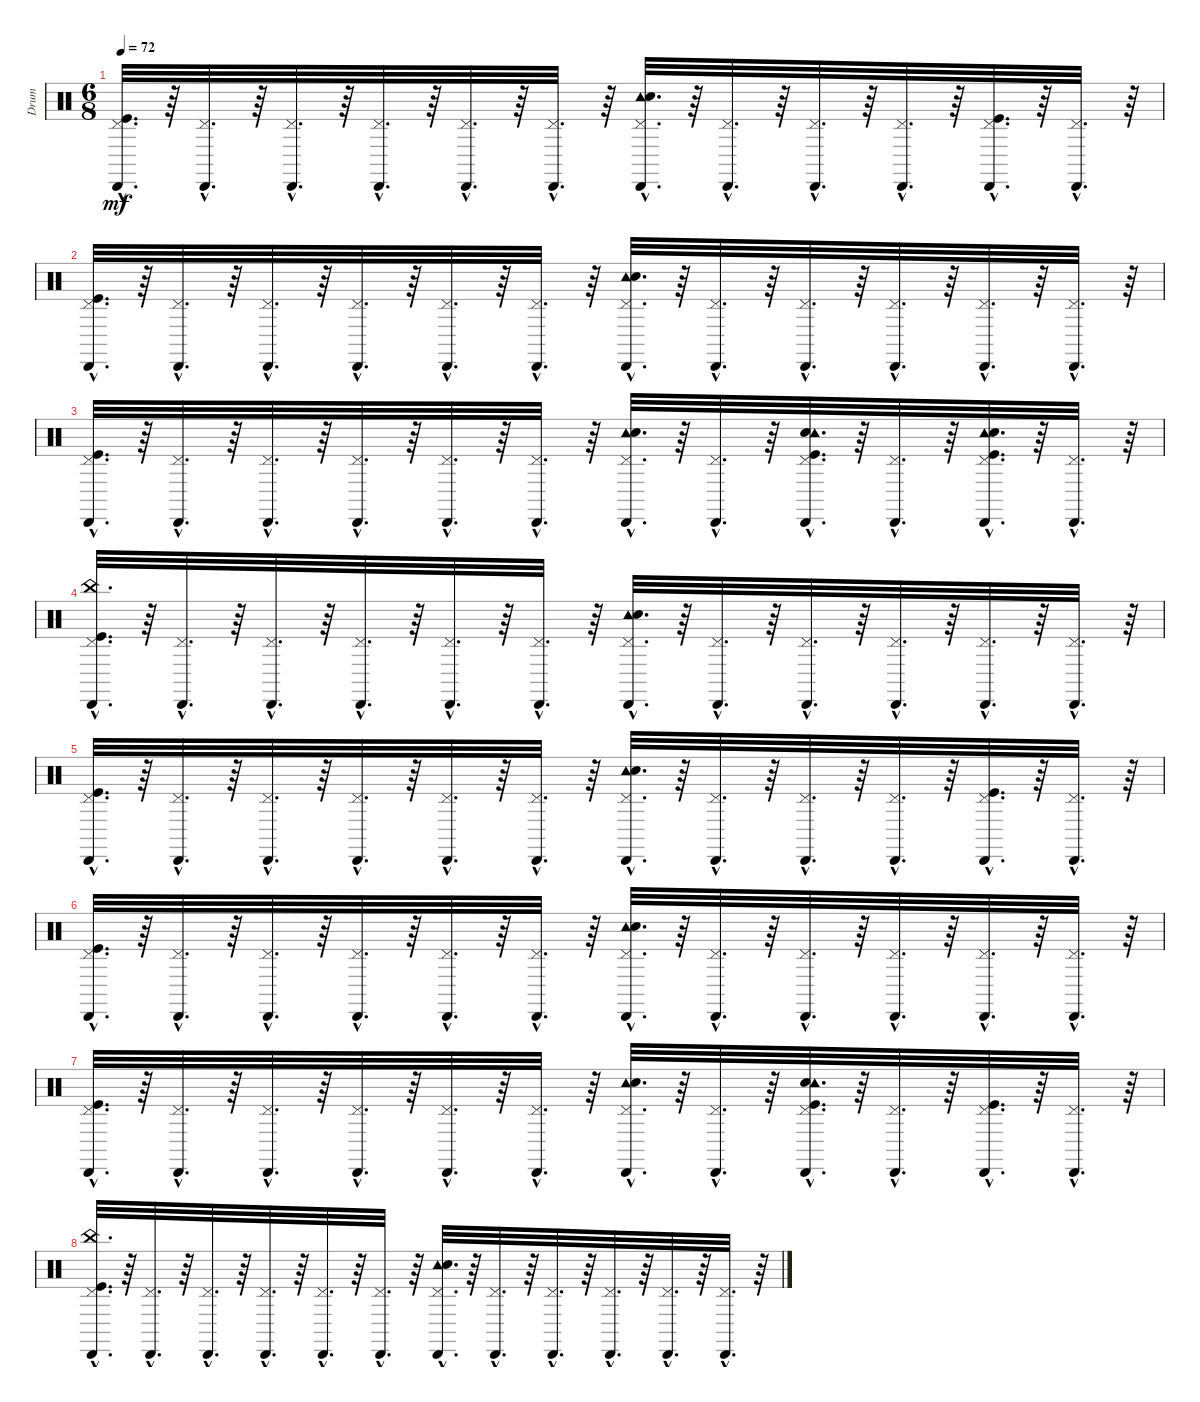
\track ("Drum" "Drum") {instrument percussion}
\staff {score}
\articulation defaults
\ts (6 8)
\tempo 72
\clef neutral
\ks c
("Cabasa (hit)"{hac} "Pedal Hi-Hat (hit)"{hac} "Kick (hit)"{hac}).32{d dy mf} r.64 ("Cabasa (hit)"{hac} "Pedal Hi-Hat (hit)"{hac}).32{d} r.64 ("Cabasa (hit)"{hac} "Pedal Hi-Hat (hit)"{hac}).32{d} r.64 ("Cabasa (hit)"{hac} "Pedal Hi-Hat (hit)"{hac}).32{d} r.64 ("Cabasa (hit)"{hac} "Pedal Hi-Hat (hit)"{hac}).32{d} r.64 ("Cabasa (hit)"{hac} "Pedal Hi-Hat (hit)"{hac}).32{d} r.64 ("Cabasa (hit)"{hac} "Pedal Hi-Hat (hit)"{hac} "Tambourine (hit)"{hac} "Electric Snare (hit)"{hac}).32{d} r.64 ("Cabasa (hit)"{hac} "Pedal Hi-Hat (hit)"{hac}).32{d} r.64 ("Cabasa (hit)"{hac} "Pedal Hi-Hat (hit)"{hac}).32{d} r.64 ("Cabasa (hit)"{hac} "Pedal Hi-Hat (hit)"{hac}).32{d} r.64 ("Kick (hit)"{hac} "Cabasa (hit)"{hac} "Pedal Hi-Hat (hit)"{hac}).32{d} r.64 ("Cabasa (hit)"{hac} "Pedal Hi-Hat (hit)"{hac}).32{d} r.64 |
("Cabasa (hit)"{hac} "Pedal Hi-Hat (hit)"{hac} "Kick (hit)"{hac}).32{d} r.64 ("Cabasa (hit)"{hac} "Pedal Hi-Hat (hit)"{hac}).32{d} r.64 ("Cabasa (hit)"{hac} "Pedal Hi-Hat (hit)"{hac}).32{d} r.64 ("Cabasa (hit)"{hac} "Pedal Hi-Hat (hit)"{hac}).32{d} r.64 ("Cabasa (hit)"{hac} "Pedal Hi-Hat (hit)"{hac}).32{d} r.64 ("Cabasa (hit)"{hac} "Pedal Hi-Hat (hit)"{hac}).32{d} r.64 ("Cabasa (hit)"{hac} "Pedal Hi-Hat (hit)"{hac} "Tambourine (hit)"{hac} "Electric Snare (hit)"{hac}).32{d} r.64 ("Cabasa (hit)"{hac} "Pedal Hi-Hat (hit)"{hac}).32{d} r.64 ("Cabasa (hit)"{hac} "Pedal Hi-Hat (hit)"{hac}).32{d} r.64 ("Cabasa (hit)"{hac} "Pedal Hi-Hat (hit)"{hac}).32{d} r.64 ("Cabasa (hit)"{hac} "Pedal Hi-Hat (hit)"{hac}).32{d} r.64 ("Cabasa (hit)"{hac} "Pedal Hi-Hat (hit)"{hac}).32{d} r.64 |
("Cabasa (hit)"{hac} "Pedal Hi-Hat (hit)"{hac} "Kick (hit)"{hac}).32{d} r.64 ("Cabasa (hit)"{hac} "Pedal Hi-Hat (hit)"{hac}).32{d} r.64 ("Cabasa (hit)"{hac} "Pedal Hi-Hat (hit)"{hac}).32{d} r.64 ("Cabasa (hit)"{hac} "Pedal Hi-Hat (hit)"{hac}).32{d} r.64 ("Cabasa (hit)"{hac} "Pedal Hi-Hat (hit)"{hac}).32{d} r.64 ("Cabasa (hit)"{hac} "Pedal Hi-Hat (hit)"{hac}).32{d} r.64 ("Cabasa (hit)"{hac} "Pedal Hi-Hat (hit)"{hac} "Tambourine (hit)"{hac} "Electric Snare (hit)"{hac}).32{d} r.64 ("Cabasa (hit)"{hac} "Pedal Hi-Hat (hit)"{hac}).32{d} r.64 ("Kick (hit)"{hac} "Electric Snare (hit)"{hac} "Tambourine (hit)"{hac} "Cabasa (hit)"{hac} "Pedal Hi-Hat (hit)"{hac}).32{d} r.64 ("Cabasa (hit)"{hac} "Pedal Hi-Hat (hit)"{hac}).32{d} r.64 ("Kick (hit)"{hac} "Cabasa (hit)"{hac} "Pedal Hi-Hat (hit)"{hac} "Tambourine (hit)"{hac} "Electric Snare (hit)"{hac}).32{d} r.64 ("Cabasa (hit)"{hac} "Pedal Hi-Hat (hit)"{hac}).32{d} r.64 |
("China (hit)"{hac} "Cabasa (hit)"{hac} "Pedal Hi-Hat (hit)"{hac} "Kick (hit)"{hac}).32{d} r.64 ("Cabasa (hit)"{hac} "Pedal Hi-Hat (hit)"{hac}).32{d} r.64 ("Cabasa (hit)"{hac} "Pedal Hi-Hat (hit)"{hac}).32{d} r.64 ("Cabasa (hit)"{hac} "Pedal Hi-Hat (hit)"{hac}).32{d} r.64 ("Cabasa (hit)"{hac} "Pedal Hi-Hat (hit)"{hac}).32{d} r.64 ("Cabasa (hit)"{hac} "Pedal Hi-Hat (hit)"{hac}).32{d} r.64 ("Cabasa (hit)"{hac} "Pedal Hi-Hat (hit)"{hac} "Tambourine (hit)"{hac} "Electric Snare (hit)"{hac}).32{d} r.64 ("Cabasa (hit)"{hac} "Pedal Hi-Hat (hit)"{hac}).32{d} r.64 ("Cabasa (hit)"{hac} "Pedal Hi-Hat (hit)"{hac}).32{d} r.64 ("Cabasa (hit)"{hac} "Pedal Hi-Hat (hit)"{hac}).32{d} r.64 ("Cabasa (hit)"{hac} "Pedal Hi-Hat (hit)"{hac}).32{d} r.64 ("Cabasa (hit)"{hac} "Pedal Hi-Hat (hit)"{hac}).32{d} r.64 |
("Cabasa (hit)"{hac} "Pedal Hi-Hat (hit)"{hac} "Kick (hit)"{hac}).32{d} r.64 ("Cabasa (hit)"{hac} "Pedal Hi-Hat (hit)"{hac}).32{d} r.64 ("Cabasa (hit)"{hac} "Pedal Hi-Hat (hit)"{hac}).32{d} r.64 ("Cabasa (hit)"{hac} "Pedal Hi-Hat (hit)"{hac}).32{d} r.64 ("Cabasa (hit)"{hac} "Pedal Hi-Hat (hit)"{hac}).32{d} r.64 ("Cabasa (hit)"{hac} "Pedal Hi-Hat (hit)"{hac}).32{d} r.64 ("Cabasa (hit)"{hac} "Pedal Hi-Hat (hit)"{hac} "Tambourine (hit)"{hac} "Electric Snare (hit)"{hac}).32{d} r.64 ("Cabasa (hit)"{hac} "Pedal Hi-Hat (hit)"{hac}).32{d} r.64 ("Cabasa (hit)"{hac} "Pedal Hi-Hat (hit)"{hac}).32{d} r.64 ("Cabasa (hit)"{hac} "Pedal Hi-Hat (hit)"{hac}).32{d} r.64 ("Kick (hit)"{hac} "Cabasa (hit)"{hac} "Pedal Hi-Hat (hit)"{hac}).32{d} r.64 ("Cabasa (hit)"{hac} "Pedal Hi-Hat (hit)"{hac}).32{d} r.64 |
("Cabasa (hit)"{hac} "Pedal Hi-Hat (hit)"{hac} "Kick (hit)"{hac}).32{d} r.64 ("Cabasa (hit)"{hac} "Pedal Hi-Hat (hit)"{hac}).32{d} r.64 ("Cabasa (hit)"{hac} "Pedal Hi-Hat (hit)"{hac}).32{d} r.64 ("Cabasa (hit)"{hac} "Pedal Hi-Hat (hit)"{hac}).32{d} r.64 ("Cabasa (hit)"{hac} "Pedal Hi-Hat (hit)"{hac}).32{d} r.64 ("Cabasa (hit)"{hac} "Pedal Hi-Hat (hit)"{hac}).32{d} r.64 ("Cabasa (hit)"{hac} "Pedal Hi-Hat (hit)"{hac} "Tambourine (hit)"{hac} "Electric Snare (hit)"{hac}).32{d} r.64 ("Cabasa (hit)"{hac} "Pedal Hi-Hat (hit)"{hac}).32{d} r.64 ("Cabasa (hit)"{hac} "Pedal Hi-Hat (hit)"{hac}).32{d} r.64 ("Cabasa (hit)"{hac} "Pedal Hi-Hat (hit)"{hac}).32{d} r.64 ("Cabasa (hit)"{hac} "Pedal Hi-Hat (hit)"{hac}).32{d} r.64 ("Cabasa (hit)"{hac} "Pedal Hi-Hat (hit)"{hac}).32{d} r.64 |
("Pedal Hi-Hat (hit)"{hac} "Kick (hit)"{hac} "Cabasa (hit)"{hac}).32{d} r.64 ("Pedal Hi-Hat (hit)"{hac} "Cabasa (hit)"{hac}).32{d} r.64 ("Cabasa (hit)"{hac} "Pedal Hi-Hat (hit)"{hac}).32{d} r.64 ("Pedal Hi-Hat (hit)"{hac} "Cabasa (hit)"{hac}).32{d} r.64 ("Cabasa (hit)"{hac} "Pedal Hi-Hat (hit)"{hac}).32{d} r.64 ("Cabasa (hit)"{hac} "Pedal Hi-Hat (hit)"{hac}).32{d} r.64 ("Cabasa (hit)"{hac} "Pedal Hi-Hat (hit)"{hac} "Tambourine (hit)"{hac} "Electric Snare (hit)"{hac}).32{d} r.64 ("Pedal Hi-Hat (hit)"{hac} "Cabasa (hit)"{hac}).32{d} r.64 ("Kick (hit)"{hac} "Electric Snare (hit)"{hac} "Tambourine (hit)"{hac} "Pedal Hi-Hat (hit)"{hac} "Cabasa (hit)"{hac}).32{d} r.64 ("Cabasa (hit)"{hac} "Pedal Hi-Hat (hit)"{hac}).32{d} r.64 ("Kick (hit)"{hac} "Cabasa (hit)"{hac} "Pedal Hi-Hat (hit)"{hac}).32{d} r.64 ("Cabasa (hit)"{hac} "Pedal Hi-Hat (hit)"{hac}).32{d} r.64 |
("China (hit)"{hac} "Cabasa (hit)"{hac} "Pedal Hi-Hat (hit)"{hac} "Kick (hit)"{hac}).32{d} r.64 ("Cabasa (hit)"{hac} "Pedal Hi-Hat (hit)"{hac}).32{d} r.64 ("Cabasa (hit)"{hac} "Pedal Hi-Hat (hit)"{hac}).32{d} r.64 ("Cabasa (hit)"{hac} "Pedal Hi-Hat (hit)"{hac}).32{d} r.64 ("Cabasa (hit)"{hac} "Pedal Hi-Hat (hit)"{hac}).32{d} r.64 ("Cabasa (hit)"{hac} "Pedal Hi-Hat (hit)"{hac}).32{d} r.64 ("Cabasa (hit)"{hac} "Pedal Hi-Hat (hit)"{hac} "Tambourine (hit)"{hac} "Electric Snare (hit)"{hac}).32{d} r.64 ("Cabasa (hit)"{hac} "Pedal Hi-Hat (hit)"{hac}).32{d} r.64 ("Cabasa (hit)"{hac} "Pedal Hi-Hat (hit)"{hac}).32{d} r.64 ("Cabasa (hit)"{hac} "Pedal Hi-Hat (hit)"{hac}).32{d} r.64 ("Cabasa (hit)"{hac} "Pedal Hi-Hat (hit)"{hac}).32{d} r.64 ("Cabasa (hit)"{hac} "Pedal Hi-Hat (hit)"{hac}).32{d} r.64
